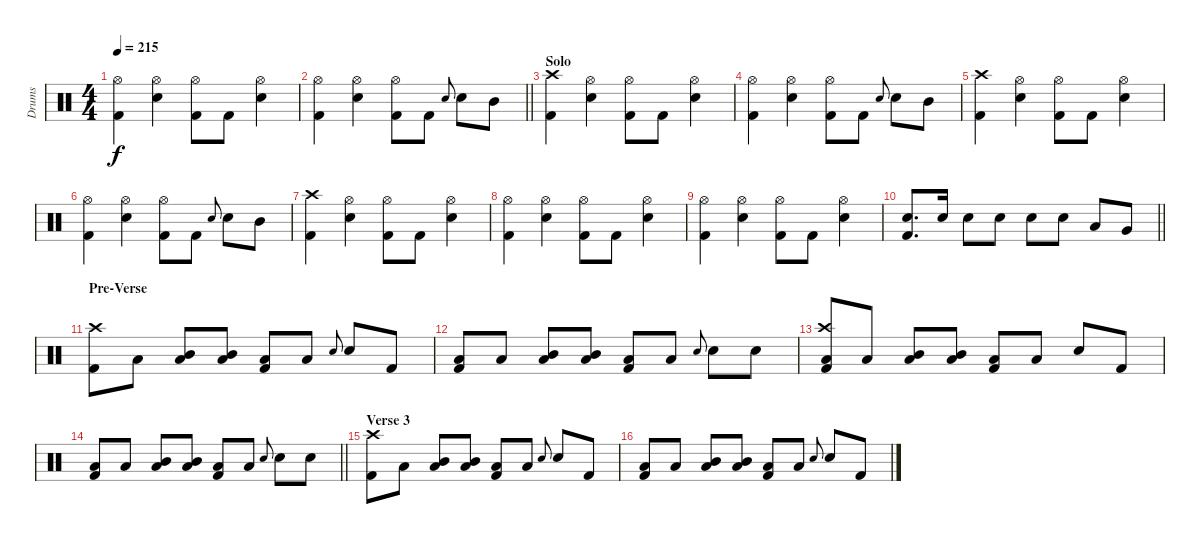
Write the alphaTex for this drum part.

\track ("Drums" "Drums") {instrument percussion}
\staff {score}
\articulation defaults
\ts (4 4)
\tempo 215
\clef neutral
\ks c
("Hi-Hat (open)" "Kick (hit) 2").4{dy f} ("Hi-Hat (open)" "Snare (hit) 2").4 ("Hi-Hat (open)" "Kick (hit) 2").8 "Kick (hit) 2".8 ("Hi-Hat (open)" "Snare (hit) 2").4 |
\barLineRight lightlight
("Hi-Hat (open)" "Kick (hit) 2").4 ("Hi-Hat (open)" "Snare (hit) 2").4 ("Hi-Hat (open)" "Kick (hit) 2").8 "Kick (hit) 2".8 "Snare (hit) 2".8{gr onbeat} "Snare (hit) 2".8 "Mid Tom (hit)".8 |
\section ("" "Solo")
("Crash high (hit)" "Kick (hit) 2").4 ("Hi-Hat (open)" "Snare (hit) 2").4 ("Hi-Hat (open)" "Kick (hit) 2").8 "Kick (hit) 2".8 ("Hi-Hat (open)" "Snare (hit) 2").4 |
("Hi-Hat (open)" "Kick (hit) 2").4 ("Hi-Hat (open)" "Snare (hit) 2").4 ("Hi-Hat (open)" "Kick (hit) 2").8 "Kick (hit) 2".8 "Snare (hit) 2".8{gr onbeat} "Snare (hit) 2".8 "Mid Tom (hit)".8 |
("Crash high (hit)" "Kick (hit) 2").4 ("Hi-Hat (open)" "Snare (hit) 2").4 ("Hi-Hat (open)" "Kick (hit) 2").8 "Kick (hit) 2".8 ("Hi-Hat (open)" "Snare (hit) 2").4 |
("Hi-Hat (open)" "Kick (hit) 2").4 ("Hi-Hat (open)" "Snare (hit) 2").4 ("Hi-Hat (open)" "Kick (hit) 2").8 "Kick (hit) 2".8 "Snare (hit) 2".8{gr onbeat} "Snare (hit) 2".8 "Mid Tom (hit)".8 |
("Crash high (hit)" "Kick (hit) 2").4 ("Hi-Hat (open)" "Snare (hit) 2").4 ("Hi-Hat (open)" "Kick (hit) 2").8 "Kick (hit) 2".8 ("Hi-Hat (open)" "Snare (hit) 2").4 |
("Hi-Hat (open)" "Kick (hit) 2").4 ("Hi-Hat (open)" "Snare (hit) 2").4 ("Hi-Hat (open)" "Kick (hit) 2").8 "Kick (hit) 2".8 ("Hi-Hat (open)" "Snare (hit) 2").4 |
("Hi-Hat (open)" "Kick (hit) 2").4 ("Hi-Hat (open)" "Snare (hit) 2").4 ("Hi-Hat (open)" "Kick (hit) 2").8 "Kick (hit) 2".8 ("Hi-Hat (open)" "Snare (hit) 2").4 |
\barLineRight lightlight
("Snare (hit) 2" "Kick (hit) 2").8{d} "Snare (hit) 2".16 "Snare (hit) 2".8 "Snare (hit) 2".8 "Snare (hit) 2".8 "Snare (hit) 2".8 "Low Tom (hit)".8 "Very Low Tom (hit)".8 |
\section ("" "Pre-Verse")
("Crash high (hit)" "Kick (hit) 2").8 "Low Tom (hit)".8 ("Mid Tom (hit)" "Low Tom (hit)").8 ("Mid Tom (hit)" "Low Tom (hit)").8 ("Low Tom (hit)" "Kick (hit) 2").8 "Low Tom (hit)".8 "Snare (hit) 2".8{gr onbeat} "Snare (hit) 2".8 "Kick (hit) 2".8 |
("Low Tom (hit)" "Kick (hit) 2").8 "Low Tom (hit)".8 ("Mid Tom (hit)" "Low Tom (hit)").8 ("Mid Tom (hit)" "Low Tom (hit)").8 ("Low Tom (hit)" "Kick (hit) 2").8 "Low Tom (hit)".8 "Snare (hit) 2".8{gr onbeat} "Snare (hit) 2".8 "Snare (hit) 2".8 |
("Crash high (hit)" "Low Tom (hit)" "Kick (hit) 2").8 "Low Tom (hit)".8 ("Mid Tom (hit)" "Low Tom (hit)").8 ("Mid Tom (hit)" "Low Tom (hit)").8 ("Low Tom (hit)" "Kick (hit) 2").8 "Low Tom (hit)".8 "Snare (hit) 2".8 "Kick (hit) 2".8 |
\barLineRight lightlight
("Low Tom (hit)" "Kick (hit) 2").8 "Low Tom (hit)".8 ("Mid Tom (hit)" "Low Tom (hit)").8 ("Mid Tom (hit)" "Low Tom (hit)").8 ("Low Tom (hit)" "Kick (hit) 2").8 "Low Tom (hit)".8 "Snare (hit) 2".8{gr onbeat} "Snare (hit) 2".8 "Snare (hit) 2".8 |
\section ("" "Verse 3")
("Crash high (hit)" "Kick (hit) 2").8 "Low Tom (hit)".8 ("Mid Tom (hit)" "Low Tom (hit)").8 ("Mid Tom (hit)" "Low Tom (hit)").8 ("Low Tom (hit)" "Kick (hit) 2").8 "Low Tom (hit)".8 "Snare (hit) 2".8{gr onbeat} "Snare (hit) 2".8 "Kick (hit) 2".8 |
("Low Tom (hit)" "Kick (hit) 2").8 "Low Tom (hit)".8 ("Mid Tom (hit)" "Low Tom (hit)").8 ("Mid Tom (hit)" "Low Tom (hit)").8 ("Low Tom (hit)" "Kick (hit) 2").8 "Low Tom (hit)".8 "Snare (hit) 2".8{gr onbeat} "Snare (hit) 2".8 "Kick (hit) 2".8
